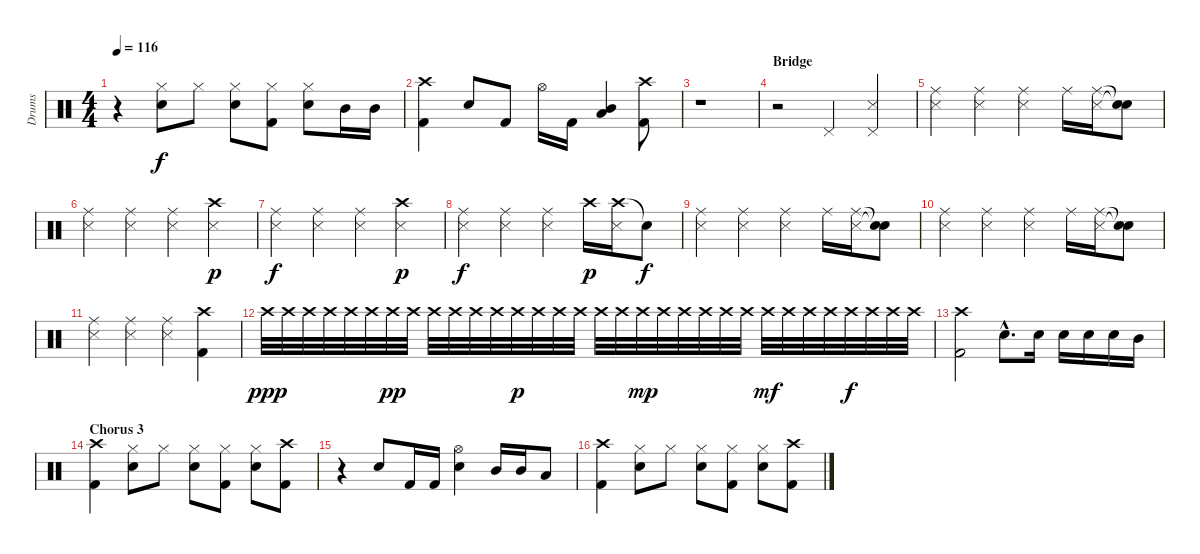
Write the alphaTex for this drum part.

\track ("Drums" "Drums") {instrument percussion}
\staff {score}
\articulation defaults
\ts (4 4)
\tempo 116
\clef neutral
\ks c
r.4{dy f} ("Hi-Hat (closed)" "Snare (hit) 2").8 "Hi-Hat (closed)".8 ("Hi-Hat (closed)" "Snare (hit) 2").8 ("Hi-Hat (closed)" "Kick (hit) 2").8 ("Hi-Hat (closed)" "Snare (hit) 2").8 "Mid Tom (hit)".16 "Mid Tom (hit)".16 |
("Crash high (hit)" "Kick (hit) 2").4 "Snare (hit) 2".8 "Kick (hit) 2".8 "Hi-Hat (open)".16 "Kick (hit) 2".16 ("Low Tom (hit)" "Mid Tom (hit)").4 ("Crash high (hit)" "Kick (hit) 2").8 |
r.1 |
\section ("" "Bridge")
r.2 "Pedal Hi-Hat (hit)".4 ("Pedal Hi-Hat (hit)" "Snare (side stick) 3").4 |
("Ride (middle)" "Snare (side stick) 3").4 ("Ride (middle)" "Snare (side stick) 3").4 ("Ride (middle)" "Snare (side stick) 3").4 "Ride (middle)".16 ("Ride (middle)" "Snare (side stick) 3").16 ("Snare (hit)"{t} "Snare (hit)"{t}).8 |
("Ride (middle)" "Snare (side stick) 3").4 ("Ride (middle)" "Snare (side stick) 3").4 ("Ride (middle)" "Snare (side stick) 3").4 ("Crash high (hit)" "Snare (side stick) 3").4{dy p} |
("Ride (middle)" "Snare (side stick) 3").4{dy f} ("Ride (middle)" "Snare (side stick) 3").4 ("Ride (middle)" "Snare (side stick) 3").4 ("Crash high (hit)" "Snare (side stick) 3").4{dy p} |
("Ride (middle)" "Snare (side stick) 3").4{dy f} ("Ride (middle)" "Snare (side stick) 3").4 ("Ride (middle)" "Snare (side stick) 3").4 "Crash high (hit)".16{dy p} ("Crash high (hit)" "Snare (side stick) 3").16 "Snare (hit)"{t}.8{dy f} |
("Ride (middle)" "Snare (side stick) 3").4 ("Ride (middle)" "Snare (side stick) 3").4 ("Ride (middle)" "Snare (side stick) 3").4 "Ride (middle)".16 ("Ride (middle)" "Snare (side stick) 3").16 ("Snare (hit)"{t} "Snare (hit)"{t}).8 |
("Ride (middle)" "Snare (side stick) 3").4 ("Ride (middle)" "Snare (side stick) 3").4 ("Ride (middle)" "Snare (side stick) 3").4 "Ride (middle)".16 ("Ride (middle)" "Snare (side stick) 3").16 ("Snare (hit)"{t} "Snare (hit)"{t}).8 |
("Ride (middle)" "Snare (side stick) 3").4 ("Ride (middle)" "Snare (side stick) 3").4 ("Ride (middle)" "Snare (side stick) 3").4 ("Crash high (hit)" "Kick (hit) 2").4 |
"Crash high (hit)".32{dy ppp} "Crash high (hit)".32 "Crash high (hit)".32 "Crash high (hit)".32 "Crash high (hit)".32 "Crash high (hit)".32 "Crash high (hit)".32{dy pp} "Crash high (hit)".32 "Crash high (hit)".32 "Crash high (hit)".32 "Crash high (hit)".32 "Crash high (hit)".32 "Crash high (hit)".32{dy p} "Crash high (hit)".32 "Crash high (hit)".32 "Crash high (hit)".32 "Crash high (hit)".32 "Crash high (hit)".32 "Crash high (hit)".32{dy mp} "Crash high (hit)".32 "Crash high (hit)".32 "Crash high (hit)".32 "Crash high (hit)".32 "Crash high (hit)".32 "Crash high (hit)".32{dy mf} "Crash high (hit)".32 "Crash high (hit)".32 "Crash high (hit)".32 "Crash high (hit)".32{dy f} "Crash high (hit)".32 "Crash high (hit)".32 "Crash high (hit)".32 |
("Crash high (hit)" "Kick (hit) 2").2 "Snare (hit) 2"{hac}.8{d} "Snare (hit) 2".16 "Snare (hit) 2".16 "Snare (hit) 2".16 "Snare (hit) 2".16 "Mid Tom (hit)".16 |
\section ("" "Chorus 3")
("Crash high (hit)" "Kick (hit) 2").4 ("Hi-Hat (closed)" "Snare (hit) 2").8 "Hi-Hat (closed)".8 ("Hi-Hat (closed)" "Snare (hit) 2").8 ("Hi-Hat (closed)" "Kick (hit) 2").8 ("Hi-Hat (closed)" "Snare (hit) 2").8 ("Crash high (hit)" "Kick (hit) 2").8 |
r.4 "Snare (hit) 2".8 "Kick (hit) 2".16 "Kick (hit) 2".16 ("Hi-Hat (open)" "Snare (hit) 2").4 "Mid Tom (hit)".16 "Mid Tom (hit)".16 "Low Tom (hit)".8 |
("Crash high (hit)" "Kick (hit) 2").4 ("Hi-Hat (closed)" "Snare (hit) 2").8 "Hi-Hat (closed)".8 ("Hi-Hat (closed)" "Snare (hit) 2").8 ("Hi-Hat (closed)" "Kick (hit) 2").8 ("Hi-Hat (closed)" "Snare (hit) 2").8 ("Crash high (hit)" "Kick (hit) 2").8
